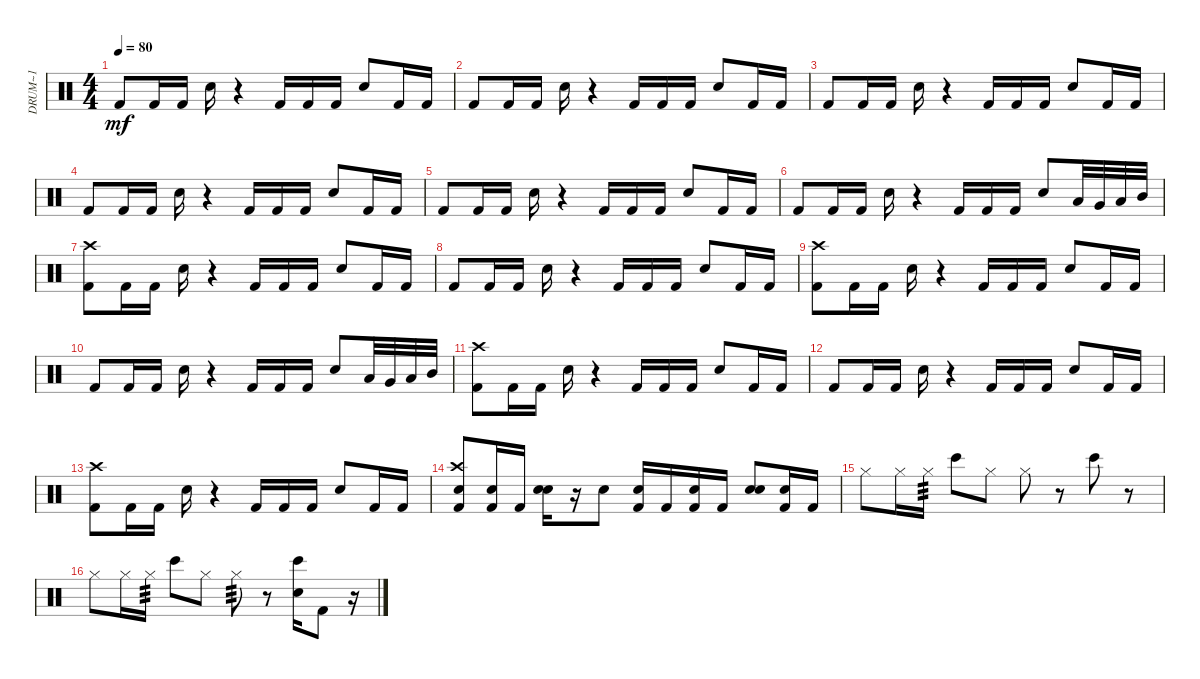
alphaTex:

\track ("DRUM~1" "DRUM~1") {instrument percussion}
\staff {score}
\articulation defaults
\ts (4 4)
\tempo 80
\clef neutral
\ks c "Kick (hit) 2".8{dy mf} "Kick (hit) 2".16 "Kick (hit) 2".16 "Snare (hit) 2".16
r.4 "Kick (hit) 2".16 "Kick (hit) 2".16 "Kick (hit) 2".16 "Snare (hit) 2".8 "Kick (hit) 2".16 "Kick (hit) 2".16 |
"Kick (hit) 2".8 "Kick (hit) 2".16 "Kick (hit) 2".16 "Snare (hit) 2".16 r.4 "Kick (hit) 2".16 "Kick (hit) 2".16 "Kick (hit) 2".16 "Snare (hit) 2".8 "Kick (hit) 2".16 "Kick (hit) 2".16 |
"Kick (hit) 2".8 "Kick (hit) 2".16 "Kick (hit) 2".16 "Snare (hit) 2".16 r.4 "Kick (hit) 2".16 "Kick (hit) 2".16 "Kick (hit) 2".16 "Snare (hit) 2".8 "Kick (hit) 2".16 "Kick (hit) 2".16 |
"Kick (hit) 2".8 "Kick (hit) 2".16 "Kick (hit) 2".16 "Snare (hit) 2".16 r.4 "Kick (hit) 2".16 "Kick (hit) 2".16 "Kick (hit) 2".16 "Snare (hit) 2".8 "Kick (hit) 2".16 "Kick (hit) 2".16 |
"Kick (hit) 2".8 "Kick (hit) 2".16 "Kick (hit) 2".16 "Snare (hit) 2".16 r.4 "Kick (hit) 2".16 "Kick (hit) 2".16 "Kick (hit) 2".16 "Snare (hit) 2".8 "Kick (hit) 2".16 "Kick (hit) 2".16 |
"Kick (hit) 2".8 "Kick (hit) 2".16 "Kick (hit) 2".16 "Snare (hit) 2".16 r.4 "Kick (hit) 2".16 "Kick (hit) 2".16 "Kick (hit) 2".16 "Snare (hit) 2".8 "Low Floor Tom (hit)".32 "Very Low Tom (hit)".32 "Low Tom (hit)".32 "Mid Tom (hit)".32 |
("Crash high (hit)" "Kick (hit) 2").8 "Kick (hit) 2".16 "Kick (hit) 2".16 "Snare (hit) 2".16 r.4 "Kick (hit) 2".16 "Kick (hit) 2".16 "Kick (hit) 2".16 "Snare (hit) 2".8 "Kick (hit) 2".16 "Kick (hit) 2".16 |
"Kick (hit) 2".8 "Kick (hit) 2".16 "Kick (hit) 2".16 "Snare (hit) 2".16 r.4 "Kick (hit) 2".16 "Kick (hit) 2".16 "Kick (hit) 2".16 "Snare (hit) 2".8 "Kick (hit) 2".16 "Kick (hit) 2".16 |
("Crash high (hit)" "Kick (hit) 2").8 "Kick (hit) 2".16 "Kick (hit) 2".16 "Snare (hit) 2".16 r.4 "Kick (hit) 2".16 "Kick (hit) 2".16 "Kick (hit) 2".16 "Snare (hit) 2".8 "Kick (hit) 2".16 "Kick (hit) 2".16 |
"Kick (hit) 2".8 "Kick (hit) 2".16 "Kick (hit) 2".16 "Snare (hit) 2".16 r.4 "Kick (hit) 2".16 "Kick (hit) 2".16 "Kick (hit) 2".16 "Snare (hit) 2".8 "Low Floor Tom (hit)".32 "Very Low Tom (hit)".32 "Low Tom (hit)".32 "Mid Tom (hit)".32 |
("Crash high (hit)" "Kick (hit) 2").8 "Kick (hit) 2".16 "Kick (hit) 2".16 "Snare (hit) 2".16 r.4 "Kick (hit) 2".16 "Kick (hit) 2".16 "Kick (hit) 2".16 "Snare (hit) 2".8 "Kick (hit) 2".16 "Kick (hit) 2".16 |
"Kick (hit) 2".8 "Kick (hit) 2".16 "Kick (hit) 2".16 "Snare (hit) 2".16 r.4 "Kick (hit) 2".16 "Kick (hit) 2".16 "Kick (hit) 2".16 "Snare (hit) 2".8 "Kick (hit) 2".16 "Kick (hit) 2".16 |
("Crash high (hit)" "Kick (hit) 2").8 "Kick (hit) 2".16 "Kick (hit) 2".16 "Snare (hit) 2".16 r.4 "Kick (hit) 2".16 "Kick (hit) 2".16 "Kick (hit) 2".16 "Snare (hit) 2".8 "Kick (hit) 2".16 "Kick (hit) 2".16 |
("Crash high (hit)" "Kick (hit) 2" "Hand Clap (hit)").8 ("Kick (hit) 2" "Hand Clap (hit)").16 "Kick (hit) 2".16 ("Snare (hit) 2" "Hand Clap (hit)").16 r.16 "Hand Clap (hit)".8 ("Kick (hit) 2" "Hand Clap (hit)").16 "Kick (hit) 2".16 ("Kick (hit) 2" "Hand Clap (hit)").16 "Kick (hit) 2".16 ("Snare (hit) 2" "Hand Clap (hit)").8 ("Kick (hit) 2" "Hand Clap (hit)").16 "Kick (hit) 2".16 |
"Hi-Hat (closed)".8 "Hi-Hat (closed)".16 "Hi-Hat (closed)".16{tp 3} "Bongo High (hit)".8 "Hi-Hat (closed)".8 "Hi-Hat (closed)".8 r.8 "Bongo High (hit)".8 r.8 |
"Hi-Hat (closed)".8 "Hi-Hat (closed)".16 "Hi-Hat (closed)".16{tp 3} "Bongo High (hit)".8 "Hi-Hat (closed)".8 "Hi-Hat (closed)".8{tp 3} r.8 ("Snare (hit) 2" "Bongo High (hit)").16 "Kick (hit) 2".8 r.16
